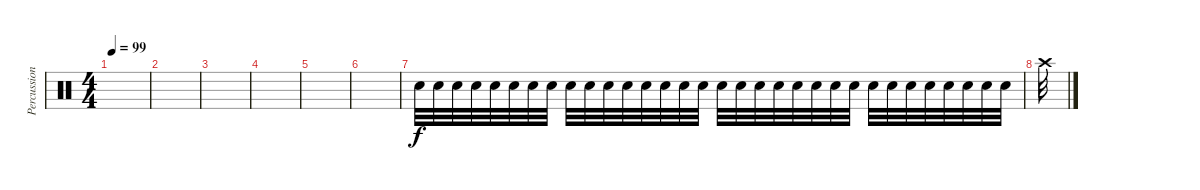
\track ("Percussion" "Percussion") {instrument percussion}
\staff {score}
\articulation defaults
\ts (4 4)
\tempo 99
\clef neutral
\ks c
|
|
|
|
|
|
"Snare (hit) 2".32 "Snare (hit) 2".32 "Snare (hit) 2".32 "Snare (hit) 2".32 "Snare (hit) 2".32 "Snare (hit) 2".32 "Snare (hit) 2".32 "Snare (hit) 2".32 "Snare (hit) 2".32 "Snare (hit) 2".32 "Snare (hit) 2".32 "Snare (hit) 2".32 "Snare (hit) 2".32 "Snare (hit) 2".32 "Snare (hit) 2".32 "Snare (hit) 2".32 "Snare (hit) 2".32 "Snare (hit) 2".32 "Snare (hit) 2".32 "Snare (hit) 2".32 "Snare (hit) 2".32 "Snare (hit) 2".32 "Snare (hit) 2".32 "Snare (hit) 2".32 "Snare (hit) 2".32 "Snare (hit) 2".32 "Snare (hit) 2".32 "Snare (hit) 2".32 "Snare (hit) 2".32 "Snare (hit) 2".32 "Snare (hit) 2".32 "Snare (hit) 2".32 |
"Crash high (hit)".32
